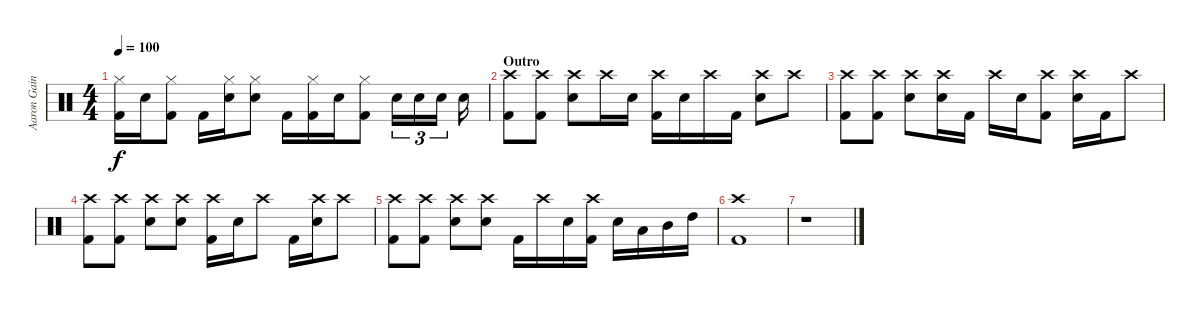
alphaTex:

\track ("Aaron Gainer" "Aaron Gain") {instrument percussion}
\staff {score}
\articulation defaults
\ts (4 4)
\tempo 100
\clef neutral
\ks c
("Hi-Hat (closed)" "Kick (hit) 2").16{dy f} "Snare (hit) 2".16 ("Hi-Hat (closed)" "Kick (hit) 2").8 "Kick (hit) 2".16 ("Hi-Hat (closed)" "Snare (hit) 2").16 ("Hi-Hat (closed)" "Snare (hit) 2").8 "Kick (hit) 2".16 ("Hi-Hat (closed)" "Kick (hit) 2").16 "Snare (hit) 2".16 ("Hi-Hat (closed)" "Kick (hit) 2").8 "Snare (hit) 2".16{tu (3 2)} "Snare (hit) 2".16{tu (3 2)} "Snare (hit) 2".16{tu (3 2)} "Snare (hit) 2".16 |
\section ("" "Outro")
("Crash high (hit)" "Kick (hit) 2").8 ("Crash high (hit)" "Kick (hit) 2").8 ("Crash high (hit)" "Snare (hit) 2").8 "Crash high (hit)".16 "Snare (hit) 2".16 ("Crash high (hit)" "Kick (hit) 2").16 "Snare (hit) 2".16 "Crash high (hit)".16 "Kick (hit) 2".16 ("Crash high (hit)" "Snare (hit) 2").8 "Crash high (hit)".8 |
("Crash high (hit)" "Kick (hit) 2").8 ("Crash high (hit)" "Kick (hit) 2").8 ("Crash high (hit)" "Snare (hit) 2").8 ("Crash high (hit)" "Snare (hit) 2").16 "Kick (hit) 2".16 "Crash high (hit)".16 "Snare (hit) 2".16 ("Crash high (hit)" "Kick (hit) 2").8 ("Crash high (hit)" "Snare (hit) 2").16 "Kick (hit) 2".16 "Crash high (hit)".8 |
("Crash high (hit)" "Kick (hit) 2").8 ("Crash high (hit)" "Kick (hit) 2").8 ("Crash high (hit)" "Snare (hit) 2").8 ("Crash high (hit)" "Snare (hit) 2").8 ("Crash high (hit)" "Kick (hit) 2").16 "Snare (hit) 2".16 "Crash high (hit)".8 "Kick (hit) 2".16 ("Crash high (hit)" "Snare (hit) 2").16 "Crash high (hit)".8 |
("Crash high (hit)" "Kick (hit) 2").8 ("Crash high (hit)" "Kick (hit) 2").8 ("Crash high (hit)" "Snare (hit) 2").8 ("Crash high (hit)" "Snare (hit) 2").8 "Kick (hit) 2".16 "Crash high (hit)".16 "Snare (hit) 2".16 ("Crash high (hit)" "Kick (hit) 2").16 "Electric Snare (hit)".16 "Low Tom (hit)".16 "Mid Tom (hit)".16 "High Tom (hit)".16 |
("Crash high (hit)" "Kick (hit) 2").1 |
r.1
